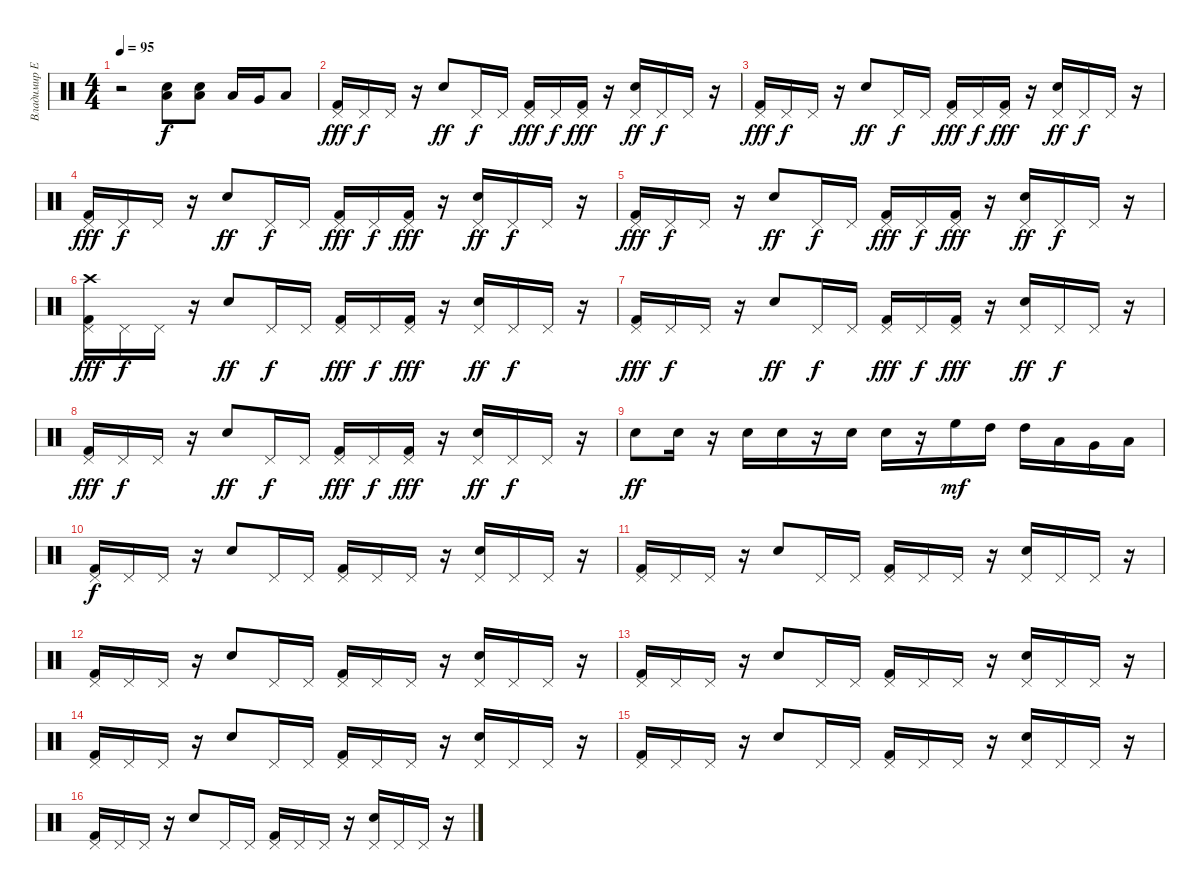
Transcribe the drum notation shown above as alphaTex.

\track ("Владимир Ермаков" "Владимир Е") {instrument percussion}
\staff {score}
\articulation defaults
\ts (4 4)
\tempo 95
\clef neutral
\ks c
r.2{dy f} ("Low Floor Tom (hit)" "Electric Snare (hit)").8{volume 12} ("Low Floor Tom (hit)" "Electric Snare (hit)").8 "Low Tom (hit)".16 "Very Low Tom (hit)".16 "Low Floor Tom (hit)".8 |
("Kick (hit) 2" "Pedal Hi-Hat (hit)").16{dy fff} "Pedal Hi-Hat (hit)".16{dy f} "Pedal Hi-Hat (hit)".16 r.16 "Electric Snare (hit)".8{dy ff} "Pedal Hi-Hat (hit)".16{dy f} "Pedal Hi-Hat (hit)".16 ("Kick (hit) 2" "Pedal Hi-Hat (hit)").16{dy fff} "Pedal Hi-Hat (hit)".16{dy f} ("Kick (hit) 2" "Pedal Hi-Hat (hit)").16{dy fff} r.16 ("Electric Snare (hit)" "Pedal Hi-Hat (hit)").16{dy ff} "Pedal Hi-Hat (hit)".16{dy f} "Pedal Hi-Hat (hit)".16 r.16 |
("Kick (hit) 2" "Pedal Hi-Hat (hit)").16{dy fff} "Pedal Hi-Hat (hit)".16{dy f} "Pedal Hi-Hat (hit)".16 r.16 "Electric Snare (hit)".8{dy ff} "Pedal Hi-Hat (hit)".16{dy f} "Pedal Hi-Hat (hit)".16 ("Kick (hit) 2" "Pedal Hi-Hat (hit)").16{dy fff} "Pedal Hi-Hat (hit)".16{dy f} ("Kick (hit) 2" "Pedal Hi-Hat (hit)").16{dy fff} r.16 ("Electric Snare (hit)" "Pedal Hi-Hat (hit)").16{dy ff} "Pedal Hi-Hat (hit)".16{dy f} "Pedal Hi-Hat (hit)".16 r.16 |
("Kick (hit) 2" "Pedal Hi-Hat (hit)").16{dy fff} "Pedal Hi-Hat (hit)".16{dy f} "Pedal Hi-Hat (hit)".16 r.16 "Electric Snare (hit)".8{dy ff} "Pedal Hi-Hat (hit)".16{dy f} "Pedal Hi-Hat (hit)".16 ("Kick (hit) 2" "Pedal Hi-Hat (hit)").16{dy fff} "Pedal Hi-Hat (hit)".16{dy f} ("Kick (hit) 2" "Pedal Hi-Hat (hit)").16{dy fff} r.16 ("Electric Snare (hit)" "Pedal Hi-Hat (hit)").16{dy ff} "Pedal Hi-Hat (hit)".16{dy f} "Pedal Hi-Hat (hit)".16 r.16 |
("Kick (hit) 2" "Pedal Hi-Hat (hit)").16{dy fff} "Pedal Hi-Hat (hit)".16{dy f} "Pedal Hi-Hat (hit)".16 r.16 "Electric Snare (hit)".8{dy ff} "Pedal Hi-Hat (hit)".16{dy f} "Pedal Hi-Hat (hit)".16 ("Kick (hit) 2" "Pedal Hi-Hat (hit)").16{dy fff} "Pedal Hi-Hat (hit)".16{dy f} ("Kick (hit) 2" "Pedal Hi-Hat (hit)").16{dy fff} r.16 ("Electric Snare (hit)" "Pedal Hi-Hat (hit)").16{dy ff} "Pedal Hi-Hat (hit)".16{dy f} "Pedal Hi-Hat (hit)".16 r.16 |
("Crash high (hit)" "Kick (hit) 2" "Pedal Hi-Hat (hit)").16{dy fff} "Pedal Hi-Hat (hit)".16{dy f} "Pedal Hi-Hat (hit)".16 r.16 "Electric Snare (hit)".8{dy ff} "Pedal Hi-Hat (hit)".16{dy f} "Pedal Hi-Hat (hit)".16 ("Kick (hit) 2" "Pedal Hi-Hat (hit)").16{dy fff} "Pedal Hi-Hat (hit)".16{dy f} ("Kick (hit) 2" "Pedal Hi-Hat (hit)").16{dy fff} r.16 ("Electric Snare (hit)" "Pedal Hi-Hat (hit)").16{dy ff} "Pedal Hi-Hat (hit)".16{dy f} "Pedal Hi-Hat (hit)".16 r.16 |
("Kick (hit) 2" "Pedal Hi-Hat (hit)").16{dy fff} "Pedal Hi-Hat (hit)".16{dy f} "Pedal Hi-Hat (hit)".16 r.16 "Electric Snare (hit)".8{dy ff} "Pedal Hi-Hat (hit)".16{dy f} "Pedal Hi-Hat (hit)".16 ("Kick (hit) 2" "Pedal Hi-Hat (hit)").16{dy fff} "Pedal Hi-Hat (hit)".16{dy f} ("Kick (hit) 2" "Pedal Hi-Hat (hit)").16{dy fff} r.16 ("Electric Snare (hit)" "Pedal Hi-Hat (hit)").16{dy ff} "Pedal Hi-Hat (hit)".16{dy f} "Pedal Hi-Hat (hit)".16 r.16 |
("Kick (hit) 2" "Pedal Hi-Hat (hit)").16{dy fff} "Pedal Hi-Hat (hit)".16{dy f} "Pedal Hi-Hat (hit)".16 r.16 "Electric Snare (hit)".8{dy ff} "Pedal Hi-Hat (hit)".16{dy f} "Pedal Hi-Hat (hit)".16 ("Kick (hit) 2" "Pedal Hi-Hat (hit)").16{dy fff} "Pedal Hi-Hat (hit)".16{dy f} ("Kick (hit) 2" "Pedal Hi-Hat (hit)").16{dy fff} r.16 ("Electric Snare (hit)" "Pedal Hi-Hat (hit)").16{dy ff} "Pedal Hi-Hat (hit)".16{dy f} "Pedal Hi-Hat (hit)".16 r.16 |
"Electric Snare (hit)".8{dy ff} "Electric Snare (hit)".16 r.16 "Electric Snare (hit)".16 "Electric Snare (hit)".16 r.16 "Electric Snare (hit)".16 "Electric Snare (hit)".16 r.16 "High Floor Tom (hit)".16{dy mf} "High Tom (hit)".16 "High Tom (hit)".16 "Low Tom (hit)".16 "Very Low Tom (hit)".16 "Low Floor Tom (hit)".16 |
("Kick (hit) 2" "Pedal Hi-Hat (hit)").16{dy f} "Pedal Hi-Hat (hit)".16 "Pedal Hi-Hat (hit)".16 r.16 "Electric Snare (hit)".8 "Pedal Hi-Hat (hit)".16 "Pedal Hi-Hat (hit)".16 ("Kick (hit) 2" "Pedal Hi-Hat (hit)").16 "Pedal Hi-Hat (hit)".16 "Pedal Hi-Hat (hit)".16 r.16 ("Electric Snare (hit)" "Pedal Hi-Hat (hit)").16 "Pedal Hi-Hat (hit)".16 "Pedal Hi-Hat (hit)".16 r.16 |
("Kick (hit) 2" "Pedal Hi-Hat (hit)").16 "Pedal Hi-Hat (hit)".16 "Pedal Hi-Hat (hit)".16 r.16 "Electric Snare (hit)".8 "Pedal Hi-Hat (hit)".16 "Pedal Hi-Hat (hit)".16 ("Kick (hit) 2" "Pedal Hi-Hat (hit)").16 "Pedal Hi-Hat (hit)".16 "Pedal Hi-Hat (hit)".16 r.16 ("Electric Snare (hit)" "Pedal Hi-Hat (hit)").16 "Pedal Hi-Hat (hit)".16 "Pedal Hi-Hat (hit)".16 r.16 |
("Kick (hit) 2" "Pedal Hi-Hat (hit)").16 "Pedal Hi-Hat (hit)".16 "Pedal Hi-Hat (hit)".16 r.16 "Electric Snare (hit)".8 "Pedal Hi-Hat (hit)".16 "Pedal Hi-Hat (hit)".16 ("Kick (hit) 2" "Pedal Hi-Hat (hit)").16 "Pedal Hi-Hat (hit)".16 "Pedal Hi-Hat (hit)".16 r.16 ("Electric Snare (hit)" "Pedal Hi-Hat (hit)").16 "Pedal Hi-Hat (hit)".16 "Pedal Hi-Hat (hit)".16 r.16 |
("Kick (hit) 2" "Pedal Hi-Hat (hit)").16 "Pedal Hi-Hat (hit)".16 "Pedal Hi-Hat (hit)".16 r.16 "Electric Snare (hit)".8 "Pedal Hi-Hat (hit)".16 "Pedal Hi-Hat (hit)".16 ("Kick (hit) 2" "Pedal Hi-Hat (hit)").16 "Pedal Hi-Hat (hit)".16 "Pedal Hi-Hat (hit)".16 r.16 ("Electric Snare (hit)" "Pedal Hi-Hat (hit)").16 "Pedal Hi-Hat (hit)".16 "Pedal Hi-Hat (hit)".16 r.16 |
("Kick (hit) 2" "Pedal Hi-Hat (hit)").16 "Pedal Hi-Hat (hit)".16 "Pedal Hi-Hat (hit)".16 r.16 "Electric Snare (hit)".8 "Pedal Hi-Hat (hit)".16 "Pedal Hi-Hat (hit)".16 ("Kick (hit) 2" "Pedal Hi-Hat (hit)").16 "Pedal Hi-Hat (hit)".16 "Pedal Hi-Hat (hit)".16 r.16 ("Electric Snare (hit)" "Pedal Hi-Hat (hit)").16 "Pedal Hi-Hat (hit)".16 "Pedal Hi-Hat (hit)".16 r.16 |
("Kick (hit) 2" "Pedal Hi-Hat (hit)").16 "Pedal Hi-Hat (hit)".16 "Pedal Hi-Hat (hit)".16 r.16 "Electric Snare (hit)".8 "Pedal Hi-Hat (hit)".16 "Pedal Hi-Hat (hit)".16 ("Kick (hit) 2" "Pedal Hi-Hat (hit)").16 "Pedal Hi-Hat (hit)".16 "Pedal Hi-Hat (hit)".16 r.16 ("Electric Snare (hit)" "Pedal Hi-Hat (hit)").16 "Pedal Hi-Hat (hit)".16 "Pedal Hi-Hat (hit)".16 r.16 |
("Kick (hit) 2" "Pedal Hi-Hat (hit)").16 "Pedal Hi-Hat (hit)".16 "Pedal Hi-Hat (hit)".16 r.16 "Electric Snare (hit)".8 "Pedal Hi-Hat (hit)".16 "Pedal Hi-Hat (hit)".16 ("Kick (hit) 2" "Pedal Hi-Hat (hit)").16 "Pedal Hi-Hat (hit)".16 "Pedal Hi-Hat (hit)".16 r.16 ("Electric Snare (hit)" "Pedal Hi-Hat (hit)").16 "Pedal Hi-Hat (hit)".16 "Pedal Hi-Hat (hit)".16 r.16
